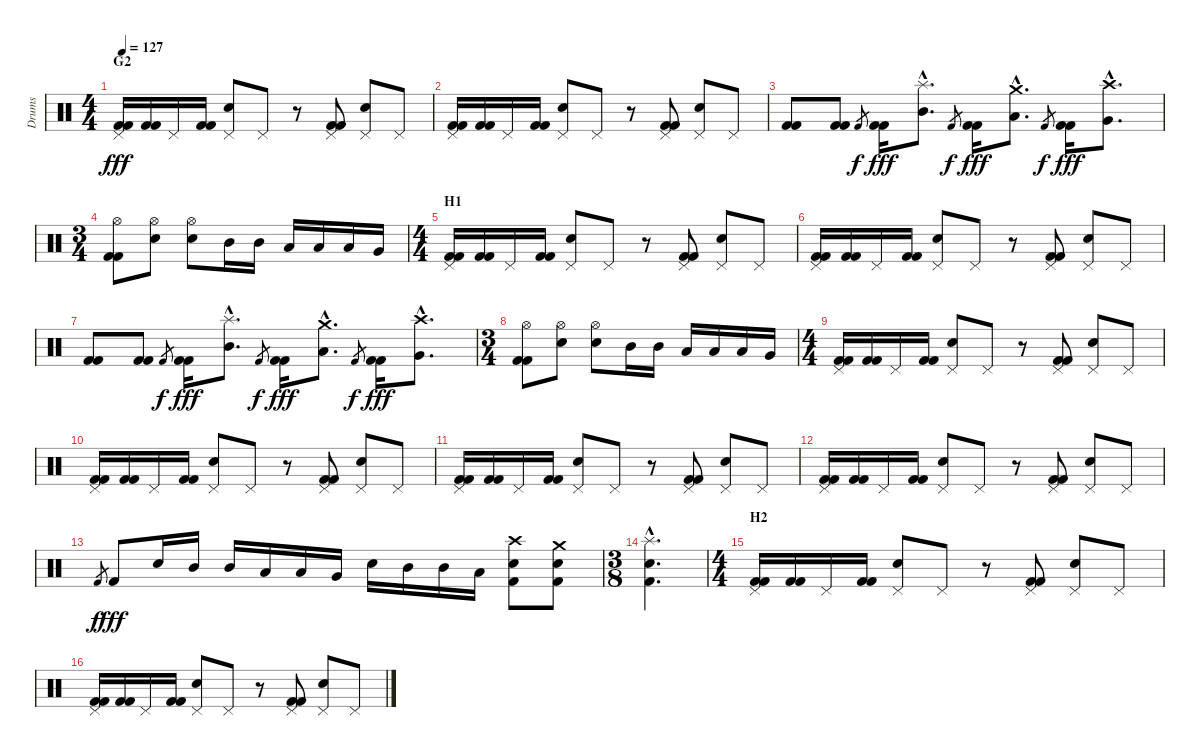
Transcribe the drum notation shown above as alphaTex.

\track ("Drums" "Drums") {instrument percussion}
\staff {score}
\articulation defaults
\ts (4 4)
\section ("" "G2")
\tempo 127
\clef neutral
\ks c
("Pedal Hi-Hat (hit)" "Kick (hit) 2" "Kick (hit) 2").16{dy fff} ("Kick (hit) 2" "Kick (hit) 2").16 "Pedal Hi-Hat (hit)".16 ("Kick (hit) 2" "Kick (hit) 2").16 ("Pedal Hi-Hat (hit)" "Electric Snare (hit)").8 "Pedal Hi-Hat (hit)".8 r.8 ("Pedal Hi-Hat (hit)" "Kick (hit) 2" "Kick (hit) 2").8 ("Pedal Hi-Hat (hit)" "Electric Snare (hit)").8 "Pedal Hi-Hat (hit)".8 |
("Pedal Hi-Hat (hit)" "Kick (hit) 2" "Kick (hit) 2").16 ("Kick (hit) 2" "Kick (hit) 2").16 "Pedal Hi-Hat (hit)".16 ("Kick (hit) 2" "Kick (hit) 2").16 ("Pedal Hi-Hat (hit)" "Electric Snare (hit)").8 "Pedal Hi-Hat (hit)".8 r.8 ("Pedal Hi-Hat (hit)" "Kick (hit) 2" "Kick (hit) 2").8 ("Pedal Hi-Hat (hit)" "Electric Snare (hit)").8 "Pedal Hi-Hat (hit)".8 |
("Kick (hit) 2" "Kick (hit) 2").8 ("Kick (hit) 2" "Kick (hit) 2").8 "Kick (hit) 2".8{gr dy f} ("Kick (hit) 2" "Kick (hit) 2").16{dy fff} ("Splash (hit)"{hac} "Mid Tom (hit)"{hac}).8{d} "Kick (hit) 2".8{gr dy f} ("Kick (hit) 2" "Kick (hit) 2").16{dy fff} ("Crash medium (hit)"{hac} "Low Tom (hit)"{hac}).8{d} "Kick (hit) 2".8{gr dy f} ("Kick (hit) 2" "Kick (hit) 2").16{dy fff} ("Crash high (hit)"{hac} "Very Low Tom (hit)"{hac}).8{d} |
\ts (3 4)
("Hi-Hat (open)" "Kick (hit) 2" "Kick (hit) 2").8 ("Hi-Hat (open)" "Electric Snare (hit)").8 ("Hi-Hat (open)" "Electric Snare (hit)").8 "Mid Tom (hit)".16 "Mid Tom (hit)".16 "Low Tom (hit)".16 "Low Tom (hit)".16 "Low Tom (hit)".16 "Very Low Tom (hit)".16 |
\ts (4 4)
\section ("" "H1")
("Pedal Hi-Hat (hit)" "Kick (hit) 2" "Kick (hit) 2").16 ("Kick (hit) 2" "Kick (hit) 2").16 "Pedal Hi-Hat (hit)".16 ("Kick (hit) 2" "Kick (hit) 2").16 ("Pedal Hi-Hat (hit)" "Electric Snare (hit)").8 "Pedal Hi-Hat (hit)".8 r.8 ("Pedal Hi-Hat (hit)" "Kick (hit) 2" "Kick (hit) 2").8 ("Pedal Hi-Hat (hit)" "Electric Snare (hit)").8 "Pedal Hi-Hat (hit)".8 |
("Pedal Hi-Hat (hit)" "Kick (hit) 2" "Kick (hit) 2").16 ("Kick (hit) 2" "Kick (hit) 2").16 "Pedal Hi-Hat (hit)".16 ("Kick (hit) 2" "Kick (hit) 2").16 ("Pedal Hi-Hat (hit)" "Electric Snare (hit)").8 "Pedal Hi-Hat (hit)".8 r.8 ("Pedal Hi-Hat (hit)" "Kick (hit) 2" "Kick (hit) 2").8 ("Pedal Hi-Hat (hit)" "Electric Snare (hit)").8 "Pedal Hi-Hat (hit)".8 |
("Kick (hit) 2" "Kick (hit) 2").8 ("Kick (hit) 2" "Kick (hit) 2").8 "Kick (hit) 2".8{gr dy f} ("Kick (hit) 2" "Kick (hit) 2").16{dy fff} ("Splash (hit)"{hac} "Mid Tom (hit)"{hac}).8{d} "Kick (hit) 2".8{gr dy f} ("Kick (hit) 2" "Kick (hit) 2").16{dy fff} ("Crash medium (hit)"{hac} "Low Tom (hit)"{hac}).8{d} "Kick (hit) 2".8{gr dy f} ("Kick (hit) 2" "Kick (hit) 2").16{dy fff} ("Crash high (hit)"{hac} "Very Low Tom (hit)"{hac}).8{d} |
\ts (3 4)
("Hi-Hat (open)" "Kick (hit) 2" "Kick (hit) 2").8 ("Hi-Hat (open)" "Electric Snare (hit)").8 ("Hi-Hat (open)" "Electric Snare (hit)").8 "Mid Tom (hit)".16 "Mid Tom (hit)".16 "Low Tom (hit)".16 "Low Tom (hit)".16 "Low Tom (hit)".16 "Very Low Tom (hit)".16 |
\ts (4 4)
("Pedal Hi-Hat (hit)" "Kick (hit) 2" "Kick (hit) 2").16 ("Kick (hit) 2" "Kick (hit) 2").16 "Pedal Hi-Hat (hit)".16 ("Kick (hit) 2" "Kick (hit) 2").16 ("Pedal Hi-Hat (hit)" "Electric Snare (hit)").8 "Pedal Hi-Hat (hit)".8 r.8 ("Pedal Hi-Hat (hit)" "Kick (hit) 2" "Kick (hit) 2").8 ("Pedal Hi-Hat (hit)" "Electric Snare (hit)").8 "Pedal Hi-Hat (hit)".8 |
("Pedal Hi-Hat (hit)" "Kick (hit) 2" "Kick (hit) 2").16 ("Kick (hit) 2" "Kick (hit) 2").16 "Pedal Hi-Hat (hit)".16 ("Kick (hit) 2" "Kick (hit) 2").16 ("Pedal Hi-Hat (hit)" "Electric Snare (hit)").8 "Pedal Hi-Hat (hit)".8 r.8 ("Pedal Hi-Hat (hit)" "Kick (hit) 2" "Kick (hit) 2").8 ("Pedal Hi-Hat (hit)" "Electric Snare (hit)").8 "Pedal Hi-Hat (hit)".8 |
("Pedal Hi-Hat (hit)" "Kick (hit) 2" "Kick (hit) 2").16 ("Kick (hit) 2" "Kick (hit) 2").16 "Pedal Hi-Hat (hit)".16 ("Kick (hit) 2" "Kick (hit) 2").16 ("Pedal Hi-Hat (hit)" "Electric Snare (hit)").8 "Pedal Hi-Hat (hit)".8 r.8 ("Pedal Hi-Hat (hit)" "Kick (hit) 2" "Kick (hit) 2").8 ("Pedal Hi-Hat (hit)" "Electric Snare (hit)").8 "Pedal Hi-Hat (hit)".8 |
("Pedal Hi-Hat (hit)" "Kick (hit) 2" "Kick (hit) 2").16 ("Kick (hit) 2" "Kick (hit) 2").16 "Pedal Hi-Hat (hit)".16 ("Kick (hit) 2" "Kick (hit) 2").16 ("Pedal Hi-Hat (hit)" "Electric Snare (hit)").8 "Pedal Hi-Hat (hit)".8 r.8 ("Pedal Hi-Hat (hit)" "Kick (hit) 2" "Kick (hit) 2").8 ("Pedal Hi-Hat (hit)" "Electric Snare (hit)").8 "Pedal Hi-Hat (hit)".8 |
"Kick (hit) 2".8{gr dy f} "Kick (hit) 2".8{dy fff} "Electric Snare (hit)".16 "Mid Tom (hit)".16 "Mid Tom (hit)".16 "Low Tom (hit)".16 "Low Tom (hit)".16 "Very Low Tom (hit)".16 "Electric Snare (hit)".16 "Mid Tom (hit)".16 "Mid Tom (hit)".16 "Low Tom (hit)".16 ("Crash high (hit)" "Electric Snare (hit)" "Kick (hit) 2").8 ("Crash medium (hit)" "Electric Snare (hit)" "Kick (hit) 2").8 |
\ts (3 8)
("Splash (hit)"{hac} "Electric Snare (hit)"{hac} "Kick (hit) 2"{hac}).4{d} |
\ts (4 4)
\section ("" "H2")
("Pedal Hi-Hat (hit)" "Kick (hit) 2" "Kick (hit) 2").16 ("Kick (hit) 2" "Kick (hit) 2").16 "Pedal Hi-Hat (hit)".16 ("Kick (hit) 2" "Kick (hit) 2").16 ("Pedal Hi-Hat (hit)" "Electric Snare (hit)").8 "Pedal Hi-Hat (hit)".8 r.8 ("Pedal Hi-Hat (hit)" "Kick (hit) 2" "Kick (hit) 2").8 ("Pedal Hi-Hat (hit)" "Electric Snare (hit)").8 "Pedal Hi-Hat (hit)".8 |
("Pedal Hi-Hat (hit)" "Kick (hit) 2" "Kick (hit) 2").16 ("Kick (hit) 2" "Kick (hit) 2").16 "Pedal Hi-Hat (hit)".16 ("Kick (hit) 2" "Kick (hit) 2").16 ("Pedal Hi-Hat (hit)" "Electric Snare (hit)").8 "Pedal Hi-Hat (hit)".8 r.8 ("Pedal Hi-Hat (hit)" "Kick (hit) 2" "Kick (hit) 2").8 ("Pedal Hi-Hat (hit)" "Electric Snare (hit)").8 "Pedal Hi-Hat (hit)".8
